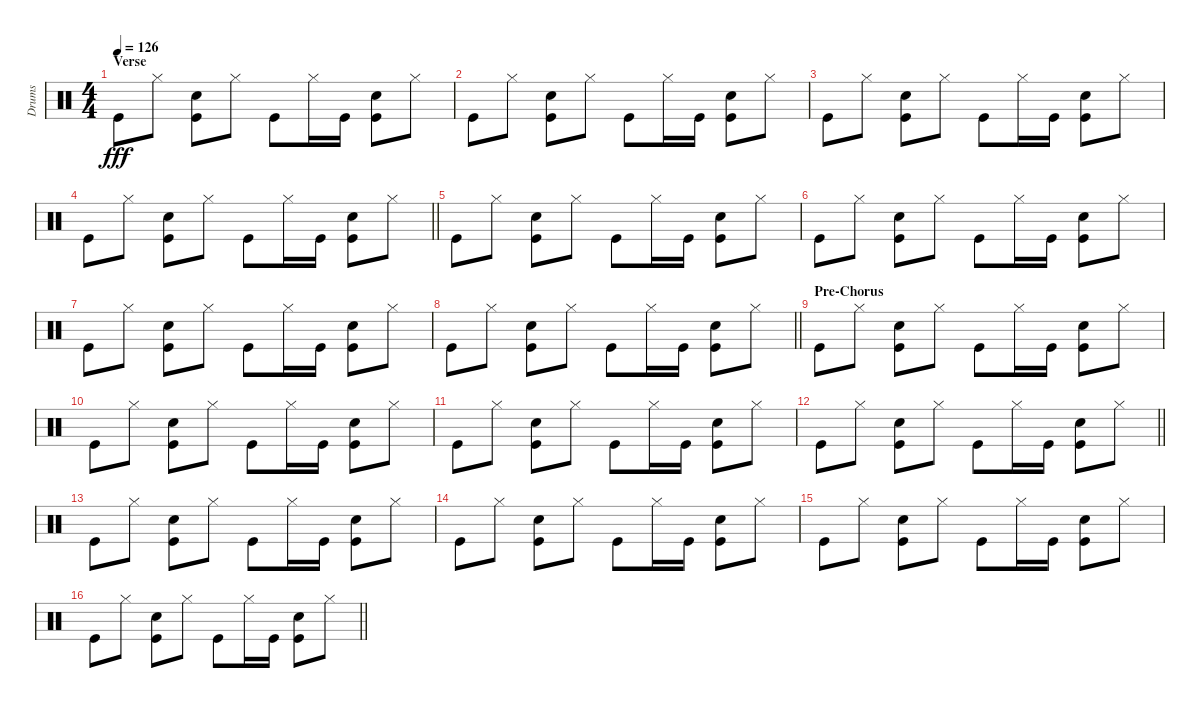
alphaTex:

\track ("Drums" "Drums") {instrument percussion}
\staff {score}
\articulation defaults
\ts (4 4)
\section ("" "Verse")
\tempo 126
\clef neutral
\ks c "Kick (hit)".8{dy fff} "Hi-Hat (closed)".8
("Hand Clap (hit)" "Kick (hit)").8 "Hi-Hat (closed)".8 "Kick (hit)".8 "Hi-Hat (closed)".16 "Kick (hit)".16 ("Hand Clap (hit)" "Kick (hit)").8 "Hi-Hat (closed)".8 |
"Kick (hit)".8 "Hi-Hat (closed)".8 ("Hand Clap (hit)" "Kick (hit)").8 "Hi-Hat (closed)".8 "Kick (hit)".8 "Hi-Hat (closed)".16 "Kick (hit)".16 ("Hand Clap (hit)" "Kick (hit)").8 "Hi-Hat (closed)".8 |
"Kick (hit)".8 "Hi-Hat (closed)".8 ("Hand Clap (hit)" "Kick (hit)").8 "Hi-Hat (closed)".8 "Kick (hit)".8 "Hi-Hat (closed)".16 "Kick (hit)".16 ("Hand Clap (hit)" "Kick (hit)").8 "Hi-Hat (closed)".8 |
\barLineRight lightlight "Kick (hit)".8 "Hi-Hat (closed)".8
("Hand Clap (hit)" "Kick (hit)").8 "Hi-Hat (closed)".8 "Kick (hit)".8 "Hi-Hat (closed)".16 "Kick (hit)".16 ("Hand Clap (hit)" "Kick (hit)").8 "Hi-Hat (closed)".8 |
"Kick (hit)".8 "Hi-Hat (closed)".8 ("Hand Clap (hit)" "Kick (hit)").8 "Hi-Hat (closed)".8 "Kick (hit)".8 "Hi-Hat (closed)".16 "Kick (hit)".16 ("Hand Clap (hit)" "Kick (hit)").8 "Hi-Hat (closed)".8 |
"Kick (hit)".8 "Hi-Hat (closed)".8 ("Hand Clap (hit)" "Kick (hit)").8 "Hi-Hat (closed)".8 "Kick (hit)".8 "Hi-Hat (closed)".16 "Kick (hit)".16 ("Hand Clap (hit)" "Kick (hit)").8 "Hi-Hat (closed)".8 |
"Kick (hit)".8 "Hi-Hat (closed)".8 ("Hand Clap (hit)" "Kick (hit)").8 "Hi-Hat (closed)".8 "Kick (hit)".8 "Hi-Hat (closed)".16 "Kick (hit)".16 ("Hand Clap (hit)" "Kick (hit)").8 "Hi-Hat (closed)".8 |
\barLineRight lightlight "Kick (hit)".8 "Hi-Hat (closed)".8
("Hand Clap (hit)" "Kick (hit)").8 "Hi-Hat (closed)".8 "Kick (hit)".8 "Hi-Hat (closed)".16 "Kick (hit)".16 ("Hand Clap (hit)" "Kick (hit)").8 "Hi-Hat (closed)".8 |
\section ("" "Pre-Chorus")
"Kick (hit)".8 "Hi-Hat (closed)".8 ("Hand Clap (hit)" "Kick (hit)").8 "Hi-Hat (closed)".8 "Kick (hit)".8 "Hi-Hat (closed)".16 "Kick (hit)".16 ("Hand Clap (hit)" "Kick (hit)").8 "Hi-Hat (closed)".8 |
"Kick (hit)".8 "Hi-Hat (closed)".8 ("Hand Clap (hit)" "Kick (hit)").8 "Hi-Hat (closed)".8 "Kick (hit)".8 "Hi-Hat (closed)".16 "Kick (hit)".16 ("Hand Clap (hit)" "Kick (hit)").8 "Hi-Hat (closed)".8 |
"Kick (hit)".8 "Hi-Hat (closed)".8 ("Hand Clap (hit)" "Kick (hit)").8 "Hi-Hat (closed)".8 "Kick (hit)".8 "Hi-Hat (closed)".16 "Kick (hit)".16 ("Hand Clap (hit)" "Kick (hit)").8 "Hi-Hat (closed)".8 |
\barLineRight lightlight "Kick (hit)".8 "Hi-Hat (closed)".8
("Hand Clap (hit)" "Kick (hit)").8 "Hi-Hat (closed)".8 "Kick (hit)".8 "Hi-Hat (closed)".16 "Kick (hit)".16 ("Hand Clap (hit)" "Kick (hit)").8 "Hi-Hat (closed)".8 |
"Kick (hit)".8 "Hi-Hat (closed)".8 ("Hand Clap (hit)" "Kick (hit)").8 "Hi-Hat (closed)".8 "Kick (hit)".8 "Hi-Hat (closed)".16 "Kick (hit)".16 ("Hand Clap (hit)" "Kick (hit)").8 "Hi-Hat (closed)".8 |
"Kick (hit)".8 "Hi-Hat (closed)".8 ("Hand Clap (hit)" "Kick (hit)").8 "Hi-Hat (closed)".8 "Kick (hit)".8 "Hi-Hat (closed)".16 "Kick (hit)".16 ("Hand Clap (hit)" "Kick (hit)").8 "Hi-Hat (closed)".8 |
"Kick (hit)".8 "Hi-Hat (closed)".8 ("Hand Clap (hit)" "Kick (hit)").8 "Hi-Hat (closed)".8 "Kick (hit)".8 "Hi-Hat (closed)".16 "Kick (hit)".16 ("Hand Clap (hit)" "Kick (hit)").8 "Hi-Hat (closed)".8 |
\barLineRight lightlight "Kick (hit)".8 "Hi-Hat (closed)".8
("Hand Clap (hit)" "Kick (hit)").8 "Hi-Hat (closed)".8 "Kick (hit)".8 "Hi-Hat (closed)".16 "Kick (hit)".16 ("Hand Clap (hit)" "Kick (hit)").8 "Hi-Hat (closed)".8
